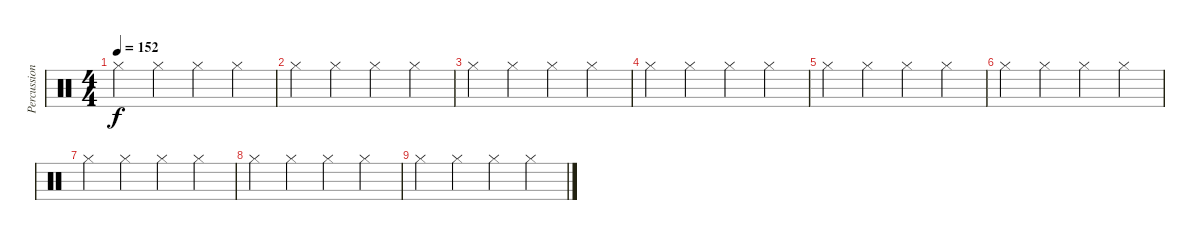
\track ("Percussion" "Percussion") {instrument percussion}
\staff {score}
\articulation defaults
\ts (4 4)
\tempo 152
\clef neutral
\ks c "Hi-Hat (closed)".4{dy f} "Hi-Hat (closed)".4 "Hi-Hat (closed)".4 "Hi-Hat (closed)".4
|
"Hi-Hat (closed)".4 "Hi-Hat (closed)".4 "Hi-Hat (closed)".4 "Hi-Hat (closed)".4 |
"Hi-Hat (closed)".4 "Hi-Hat (closed)".4 "Hi-Hat (closed)".4 "Hi-Hat (closed)".4 |
"Hi-Hat (closed)".4 "Hi-Hat (closed)".4 "Hi-Hat (closed)".4 "Hi-Hat (closed)".4 |
"Hi-Hat (closed)".4 "Hi-Hat (closed)".4 "Hi-Hat (closed)".4 "Hi-Hat (closed)".4 |
"Hi-Hat (closed)".4 "Hi-Hat (closed)".4 "Hi-Hat (closed)".4 "Hi-Hat (closed)".4 |
"Hi-Hat (closed)".4 "Hi-Hat (closed)".4 "Hi-Hat (closed)".4 "Hi-Hat (closed)".4 |
"Hi-Hat (closed)".4 "Hi-Hat (closed)".4 "Hi-Hat (closed)".4 "Hi-Hat (closed)".4 |
"Hi-Hat (closed)".4 "Hi-Hat (closed)".4 "Hi-Hat (closed)".4 "Hi-Hat (closed)".4
